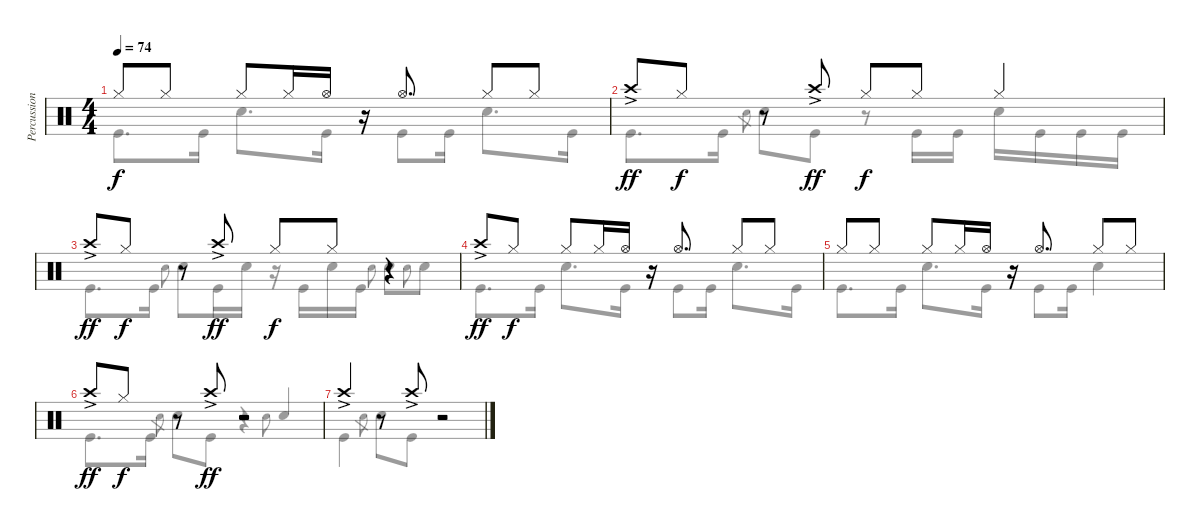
\track ("Percussion" "Percussion") {instrument percussion}
\staff {score}
\articulation defaults
\voice
\ts (4 4)
\tempo 74
\clef neutral
\ks c "Hi-Hat (closed)".8{dy f beam Up} "Hi-Hat (closed)".8{beam Up} "Hi-Hat (closed)".8{beam Up} "Hi-Hat (closed)".16{beam Up} "Hi-Hat (open)".16{beam Up}
r.16 "Hi-Hat (open)".8{d beam Up beam split} "Hi-Hat (closed)".8{beam Up beam merge} "Hi-Hat (closed)".8{beam Up} |
"Crash high (hit)"{ac}.8{dy ff beam Up} "Hi-Hat (closed)".8{dy f beam Up} r.8 "Crash high (hit)"{ac}.8{dy ff beam Up} "Hi-Hat (closed)".8{dy f beam Up} "Hi-Hat (closed)".8{beam Up} "Hi-Hat (closed)".4{beam Up} |
"Crash high (hit)"{ac}.8{dy ff beam Up} "Hi-Hat (closed)".8{dy f beam Up} r.8 "Crash high (hit)"{ac}.8{dy ff beam Up} "Hi-Hat (closed)".8{dy f beam Up} "Hi-Hat (closed)".8{beam Up} r.4{beam Up} |
"Crash high (hit)"{ac}.8{dy ff beam Up} "Hi-Hat (closed)".8{dy f beam Up} "Hi-Hat (closed)".8{beam Up} "Hi-Hat (closed)".16{beam Up} "Hi-Hat (open)".16{beam Up} r.16 "Hi-Hat (open)".8{d beam Up beam split} "Hi-Hat (closed)".8{beam Up beam merge} "Hi-Hat (closed)".8{beam Up} |
"Hi-Hat (closed)".8{beam Up} "Hi-Hat (closed)".8{beam Up} "Hi-Hat (closed)".8{beam Up} "Hi-Hat (closed)".16{beam Up} "Hi-Hat (open)".16{beam Up} r.16 "Hi-Hat (open)".8{d beam Up beam split} "Hi-Hat (closed)".8{beam Up beam merge} "Hi-Hat (closed)".8{beam Up} |
"Crash high (hit)"{ac}.8{dy ff beam Up} "Hi-Hat (closed)".8{dy f beam Up} r.8 "Crash high (hit)"{ac}.8{dy ff beam Up} r.2 |
"Crash high (hit)"{ac}.4{beam Up} r.8 "Crash high (hit)"{ac}.8{beam Up} r.2 |
|
|
|
|
|
|
|
|
\voice
\clef neutral
\ottava regular
\simile none
\ks c "Kick (hit)".8{d dy f} "Kick (hit)".16 "Snare (hit) 2".8{d} "Kick (hit)".16
r.16 "Kick (hit)".8 "Kick (hit)".16 "Snare (hit) 2".8{d} "Kick (hit)".16 |
"Kick (hit)".8{d} "Kick (hit)".16 "Snare (hit) 2"{h}.8{gr} "Snare (hit) 2".8 "Kick (hit)".8 r.8 "Kick (hit)".16 "Kick (hit)".16 "Snare (hit) 2".16 "Kick (hit)".16 "Kick (hit)".16 "Kick (hit)".16 |
"Kick (hit)".8{d} "Kick (hit)".16 "Snare (hit) 2"{h}.8{gr onbeat} "Snare (hit) 2".8 "Kick (hit)".16 "Snare (hit) 2".16 r.16 "Kick (hit)".16 "Snare (hit) 2".16 "Kick (hit)".16 "Snare (hit) 2"{h}.8{gr onbeat} "Snare (hit) 2".8 "Snare (hit) 2"{h}.8{gr onbeat} "Snare (hit) 2".8 |
"Kick (hit)".8{d} "Kick (hit)".16 "Snare (hit) 2".8{d} "Kick (hit)".16 r.16 "Kick (hit)".8 "Kick (hit)".16 "Snare (hit) 2".8{d} "Kick (hit)".16 |
"Kick (hit)".8{d} "Kick (hit)".16 "Snare (hit) 2".8{d} "Kick (hit)".16 r.16 "Kick (hit)".8 "Kick (hit)".16 "Snare (hit) 2".4 |
"Kick (hit)".8{d} "Kick (hit)".16 "Snare (hit) 2"{h}.8{gr} "Snare (hit) 2".8 "Kick (hit)".8 r.4 "Snare (hit) 2"{h}.8{gr onbeat} "Snare (hit) 2".4{beam Up} |
"Kick (hit)".4 "Snare (hit) 2"{h}.8{gr} "Snare (hit) 2".8 "Kick (hit)".8 r.2 |
|
|
|
|
|
|
|
|
